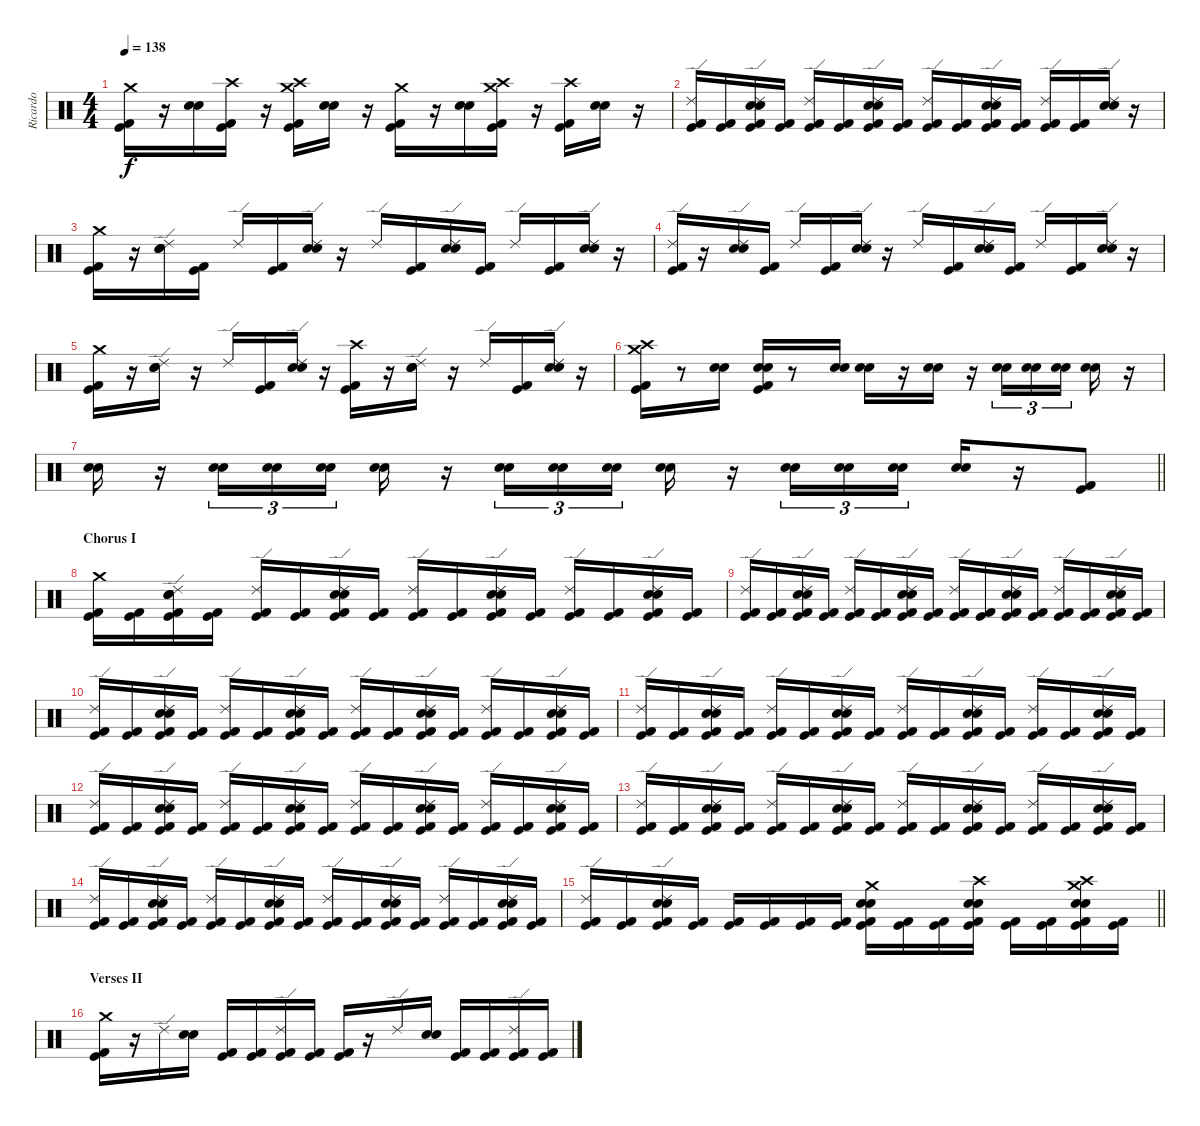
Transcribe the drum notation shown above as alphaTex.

\track ("Ricardo" "Ricardo") {instrument percussion}
\staff {score}
\articulation defaults
\ts (4 4)
\tempo 138
\clef neutral
\ks c
("Crash medium (hit)" "Kick (hit) 2" "Kick (hit)").16{dy f} r.16 ("Electric Snare (hit)" "Snare (hit) 2").16 ("Crash high (hit)" "Kick (hit)" "Kick (hit) 2").16 r.16 ("Crash high (hit)" "Crash medium (hit)" "Kick (hit) 2" "Kick (hit)").16 ("Electric Snare (hit)" "Snare (hit) 2").16 r.16 ("Crash medium (hit)" "Kick (hit) 2" "Kick (hit)").16 r.16 ("Electric Snare (hit)" "Snare (hit) 2").16 ("Crash medium (hit)" "Crash high (hit)" "Kick (hit) 2" "Kick (hit)").16 r.16 ("Crash high (hit)" "Kick (hit) 2" "Kick (hit)").16 ("Electric Snare (hit)" "Snare (hit) 2").16 r.16 |
("Ride (edge) 2" "Kick (hit) 2" "Kick (hit)").16 ("Kick (hit) 2" "Kick (hit)").16 ("Electric Snare (hit)" "Snare (hit) 2" "Ride (edge) 2" "Kick (hit) 2" "Kick (hit)").16 ("Kick (hit) 2" "Kick (hit)").16 ("Ride (edge) 2" "Kick (hit) 2" "Kick (hit)").16 ("Kick (hit) 2" "Kick (hit)").16 ("Electric Snare (hit)" "Snare (hit) 2" "Ride (edge) 2" "Kick (hit) 2" "Kick (hit)").16 ("Kick (hit) 2" "Kick (hit)").16 ("Ride (edge) 2" "Kick (hit) 2" "Kick (hit)").16 ("Kick (hit) 2" "Kick (hit)").16 ("Electric Snare (hit)" "Snare (hit) 2" "Ride (edge) 2" "Kick (hit) 2" "Kick (hit)").16 ("Kick (hit) 2" "Kick (hit)").16 ("Ride (edge) 2" "Kick (hit) 2" "Kick (hit)").16 ("Kick (hit) 2" "Kick (hit)").16 ("Ride (edge) 2" "Electric Snare (hit)" "Snare (hit) 2").16 r.16 |
("Crash medium (hit)" "Kick (hit) 2" "Kick (hit)").16 r.16 ("Electric Snare (hit)" "Snare (hit) 2" "Ride (edge) 2").16 ("Kick (hit) 2" "Kick (hit)").16 "Ride (edge) 2".16 ("Kick (hit) 2" "Kick (hit)").16 ("Electric Snare (hit)" "Snare (hit) 2" "Ride (edge) 2").16 r.16 "Ride (edge) 2".16 ("Kick (hit) 2" "Kick (hit)").16 ("Electric Snare (hit)" "Snare (hit) 2" "Ride (edge) 2").16 ("Kick (hit) 2" "Kick (hit)").16 "Ride (edge) 2".16 ("Kick (hit) 2" "Kick (hit)").16 ("Electric Snare (hit)" "Snare (hit) 2" "Ride (edge) 2").16 r.16 |
("Ride (edge) 2" "Kick (hit) 2" "Kick (hit)").16 r.16 ("Ride (edge) 2" "Electric Snare (hit)" "Snare (hit) 2").16 ("Kick (hit) 2" "Kick (hit)").16 "Ride (edge) 2".16 ("Kick (hit) 2" "Kick (hit)").16 ("Electric Snare (hit)" "Snare (hit) 2" "Ride (edge) 2").16 r.16 "Ride (edge) 2".16 ("Kick (hit) 2" "Kick (hit)").16 ("Electric Snare (hit)" "Snare (hit) 2" "Ride (edge) 2").16 ("Kick (hit) 2" "Kick (hit)").16 "Ride (edge) 2".16 ("Kick (hit) 2" "Kick (hit)").16 ("Electric Snare (hit)" "Snare (hit) 2" "Ride (edge) 2").16 r.16 |
("Kick (hit) 2" "Kick (hit)" "Crash medium (hit)").16 r.16 ("Electric Snare (hit)" "Snare (hit) 2" "Ride (edge) 2").16 r.16 "Ride (edge) 2".16 ("Kick (hit) 2" "Kick (hit)").16 ("Electric Snare (hit)" "Snare (hit) 2" "Ride (edge) 2").16 r.16 ("Crash high (hit)" "Kick (hit) 2" "Kick (hit)").16 r.16 ("Ride (edge) 2" "Electric Snare (hit)" "Snare (hit) 2").16 r.16 "Ride (edge) 2".16 ("Kick (hit)" "Kick (hit) 2").16 ("Ride (edge) 2" "Electric Snare (hit)" "Snare (hit) 2").16 r.16 |
("Crash high (hit)" "Crash medium (hit)" "Kick (hit) 2" "Kick (hit)").16 r.8 ("Electric Snare (hit)" "Snare (hit) 2").16 ("Electric Snare (hit)" "Snare (hit) 2" "Kick (hit) 2" "Kick (hit)").16 r.8 ("Electric Snare (hit)" "Snare (hit) 2").16 ("Electric Snare (hit)" "Snare (hit) 2").16 r.16 ("Electric Snare (hit)" "Snare (hit) 2").16 r.16 ("Electric Snare (hit)" "Snare (hit) 2").16{tu (3 2)} ("Electric Snare (hit)" "Snare (hit) 2").16{tu (3 2)} ("Electric Snare (hit)" "Snare (hit) 2").16{tu (3 2)} ("Electric Snare (hit)" "Snare (hit) 2").16 r.16 |
\barLineRight lightlight
("Electric Snare (hit)" "Snare (hit) 2").16 r.16 ("Electric Snare (hit)" "Snare (hit) 2").16{tu (3 2)} ("Electric Snare (hit)" "Snare (hit) 2").16{tu (3 2)} ("Electric Snare (hit)" "Snare (hit) 2").16{tu (3 2)} ("Electric Snare (hit)" "Snare (hit) 2").16 r.16 ("Electric Snare (hit)" "Snare (hit) 2").16{tu (3 2)} ("Electric Snare (hit)" "Snare (hit) 2").16{tu (3 2)} ("Electric Snare (hit)" "Snare (hit) 2").16{tu (3 2)} ("Electric Snare (hit)" "Snare (hit) 2").16 r.16 ("Electric Snare (hit)" "Snare (hit) 2").16{tu (3 2)} ("Electric Snare (hit)" "Snare (hit) 2").16{tu (3 2)} ("Electric Snare (hit)" "Snare (hit) 2").16{tu (3 2)} ("Electric Snare (hit)" "Snare (hit) 2").16 r.16 ("Kick (hit) 2" "Kick (hit)").8 |
\section ("" "Chorus I")
("Crash medium (hit)" "Kick (hit) 2" "Kick (hit)").16 ("Kick (hit) 2" "Kick (hit)").16 ("Electric Snare (hit)" "Snare (hit) 2" "Ride (edge) 2" "Kick (hit) 2" "Kick (hit)").16 ("Kick (hit) 2" "Kick (hit)").16 ("Ride (edge) 2" "Kick (hit) 2" "Kick (hit)").16 ("Kick (hit) 2" "Kick (hit)").16 ("Electric Snare (hit)" "Snare (hit) 2" "Ride (edge) 2" "Kick (hit) 2" "Kick (hit)").16 ("Kick (hit) 2" "Kick (hit)").16 ("Ride (edge) 2" "Kick (hit) 2" "Kick (hit)").16 ("Kick (hit) 2" "Kick (hit)").16 ("Electric Snare (hit)" "Snare (hit) 2" "Ride (edge) 2" "Kick (hit) 2" "Kick (hit)").16 ("Kick (hit) 2" "Kick (hit)").16 ("Ride (edge) 2" "Kick (hit) 2" "Kick (hit)").16 ("Kick (hit) 2" "Kick (hit)").16 ("Electric Snare (hit)" "Snare (hit) 2" "Ride (edge) 2" "Kick (hit) 2" "Kick (hit)").16 ("Kick (hit) 2" "Kick (hit)").16 |
("Ride (edge) 2" "Kick (hit) 2" "Kick (hit)").16 ("Kick (hit) 2" "Kick (hit)").16 ("Electric Snare (hit)" "Snare (hit) 2" "Ride (edge) 2" "Kick (hit) 2" "Kick (hit)").16 ("Kick (hit) 2" "Kick (hit)").16 ("Ride (edge) 2" "Kick (hit) 2" "Kick (hit)").16 ("Kick (hit) 2" "Kick (hit)").16 ("Electric Snare (hit)" "Snare (hit) 2" "Ride (edge) 2" "Kick (hit) 2" "Kick (hit)").16 ("Kick (hit) 2" "Kick (hit)").16 ("Ride (edge) 2" "Kick (hit) 2" "Kick (hit)").16 ("Kick (hit) 2" "Kick (hit)").16 ("Electric Snare (hit)" "Snare (hit) 2" "Ride (edge) 2" "Kick (hit) 2" "Kick (hit)").16 ("Kick (hit) 2" "Kick (hit)").16 ("Ride (edge) 2" "Kick (hit) 2" "Kick (hit)").16 ("Kick (hit) 2" "Kick (hit)").16 ("Electric Snare (hit)" "Snare (hit) 2" "Ride (edge) 2" "Kick (hit) 2" "Kick (hit)").16 ("Kick (hit) 2" "Kick (hit)").16 |
("Ride (edge) 2" "Kick (hit) 2" "Kick (hit)").16 ("Kick (hit) 2" "Kick (hit)").16 ("Electric Snare (hit)" "Snare (hit) 2" "Ride (edge) 2" "Kick (hit) 2" "Kick (hit)").16 ("Kick (hit) 2" "Kick (hit)").16 ("Ride (edge) 2" "Kick (hit) 2" "Kick (hit)").16 ("Kick (hit) 2" "Kick (hit)").16 ("Electric Snare (hit)" "Snare (hit) 2" "Ride (edge) 2" "Kick (hit) 2" "Kick (hit)").16 ("Kick (hit) 2" "Kick (hit)").16 ("Ride (edge) 2" "Kick (hit) 2" "Kick (hit)").16 ("Kick (hit) 2" "Kick (hit)").16 ("Electric Snare (hit)" "Snare (hit) 2" "Ride (edge) 2" "Kick (hit) 2" "Kick (hit)").16 ("Kick (hit) 2" "Kick (hit)").16 ("Ride (edge) 2" "Kick (hit) 2" "Kick (hit)").16 ("Kick (hit) 2" "Kick (hit)").16 ("Electric Snare (hit)" "Snare (hit) 2" "Ride (edge) 2" "Kick (hit) 2" "Kick (hit)").16 ("Kick (hit) 2" "Kick (hit)").16 |
("Ride (edge) 2" "Kick (hit) 2" "Kick (hit)").16 ("Kick (hit) 2" "Kick (hit)").16 ("Electric Snare (hit)" "Snare (hit) 2" "Ride (edge) 2" "Kick (hit) 2" "Kick (hit)").16 ("Kick (hit) 2" "Kick (hit)").16 ("Ride (edge) 2" "Kick (hit) 2" "Kick (hit)").16 ("Kick (hit) 2" "Kick (hit)").16 ("Electric Snare (hit)" "Snare (hit) 2" "Ride (edge) 2" "Kick (hit) 2" "Kick (hit)").16 ("Kick (hit) 2" "Kick (hit)").16 ("Ride (edge) 2" "Kick (hit) 2" "Kick (hit)").16 ("Kick (hit) 2" "Kick (hit)").16 ("Electric Snare (hit)" "Snare (hit) 2" "Ride (edge) 2" "Kick (hit) 2" "Kick (hit)").16 ("Kick (hit) 2" "Kick (hit)").16 ("Ride (edge) 2" "Kick (hit) 2" "Kick (hit)").16 ("Kick (hit) 2" "Kick (hit)").16 ("Electric Snare (hit)" "Snare (hit) 2" "Ride (edge) 2" "Kick (hit) 2" "Kick (hit)").16 ("Kick (hit) 2" "Kick (hit)").16 |
("Ride (edge) 2" "Kick (hit) 2" "Kick (hit)").16 ("Kick (hit) 2" "Kick (hit)").16 ("Electric Snare (hit)" "Snare (hit) 2" "Ride (edge) 2" "Kick (hit) 2" "Kick (hit)").16 ("Kick (hit) 2" "Kick (hit)").16 ("Ride (edge) 2" "Kick (hit) 2" "Kick (hit)").16 ("Kick (hit) 2" "Kick (hit)").16 ("Electric Snare (hit)" "Snare (hit) 2" "Ride (edge) 2" "Kick (hit) 2" "Kick (hit)").16 ("Kick (hit) 2" "Kick (hit)").16 ("Ride (edge) 2" "Kick (hit) 2" "Kick (hit)").16 ("Kick (hit) 2" "Kick (hit)").16 ("Electric Snare (hit)" "Snare (hit) 2" "Ride (edge) 2" "Kick (hit) 2" "Kick (hit)").16 ("Kick (hit) 2" "Kick (hit)").16 ("Ride (edge) 2" "Kick (hit) 2" "Kick (hit)").16 ("Kick (hit) 2" "Kick (hit)").16 ("Electric Snare (hit)" "Snare (hit) 2" "Ride (edge) 2" "Kick (hit) 2" "Kick (hit)").16 ("Kick (hit) 2" "Kick (hit)").16 |
("Ride (edge) 2" "Kick (hit) 2" "Kick (hit)").16 ("Kick (hit) 2" "Kick (hit)").16 ("Electric Snare (hit)" "Snare (hit) 2" "Ride (edge) 2" "Kick (hit) 2" "Kick (hit)").16 ("Kick (hit) 2" "Kick (hit)").16 ("Ride (edge) 2" "Kick (hit) 2" "Kick (hit)").16 ("Kick (hit) 2" "Kick (hit)").16 ("Electric Snare (hit)" "Snare (hit) 2" "Ride (edge) 2" "Kick (hit) 2" "Kick (hit)").16 ("Kick (hit) 2" "Kick (hit)").16 ("Ride (edge) 2" "Kick (hit) 2" "Kick (hit)").16 ("Kick (hit) 2" "Kick (hit)").16 ("Electric Snare (hit)" "Snare (hit) 2" "Ride (edge) 2" "Kick (hit) 2" "Kick (hit)").16 ("Kick (hit) 2" "Kick (hit)").16 ("Ride (edge) 2" "Kick (hit) 2" "Kick (hit)").16 ("Kick (hit) 2" "Kick (hit)").16 ("Electric Snare (hit)" "Snare (hit) 2" "Ride (edge) 2" "Kick (hit) 2" "Kick (hit)").16 ("Kick (hit) 2" "Kick (hit)").16 |
("Ride (edge) 2" "Kick (hit) 2" "Kick (hit)").16 ("Kick (hit) 2" "Kick (hit)").16 ("Electric Snare (hit)" "Snare (hit) 2" "Ride (edge) 2" "Kick (hit) 2" "Kick (hit)").16 ("Kick (hit) 2" "Kick (hit)").16 ("Ride (edge) 2" "Kick (hit) 2" "Kick (hit)").16 ("Kick (hit) 2" "Kick (hit)").16 ("Electric Snare (hit)" "Snare (hit) 2" "Ride (edge) 2" "Kick (hit) 2" "Kick (hit)").16 ("Kick (hit) 2" "Kick (hit)").16 ("Ride (edge) 2" "Kick (hit) 2" "Kick (hit)").16 ("Kick (hit) 2" "Kick (hit)").16 ("Electric Snare (hit)" "Snare (hit) 2" "Ride (edge) 2" "Kick (hit) 2" "Kick (hit)").16 ("Kick (hit) 2" "Kick (hit)").16 ("Ride (edge) 2" "Kick (hit) 2" "Kick (hit)").16 ("Kick (hit) 2" "Kick (hit)").16 ("Electric Snare (hit)" "Snare (hit) 2" "Ride (edge) 2" "Kick (hit) 2" "Kick (hit)").16 ("Kick (hit) 2" "Kick (hit)").16 |
\barLineRight lightlight
("Ride (edge) 2" "Kick (hit) 2" "Kick (hit)").16 ("Kick (hit) 2" "Kick (hit)").16 ("Electric Snare (hit)" "Snare (hit) 2" "Ride (edge) 2" "Kick (hit) 2" "Kick (hit)").16 ("Kick (hit) 2" "Kick (hit)").16 ("Kick (hit) 2" "Kick (hit)").16 ("Kick (hit) 2" "Kick (hit)").16 ("Kick (hit) 2" "Kick (hit)").16 ("Kick (hit) 2" "Kick (hit)").16 ("Electric Snare (hit)" "Snare (hit) 2" "Crash medium (hit)" "Kick (hit) 2" "Kick (hit)").16 ("Kick (hit) 2" "Kick (hit)").16 ("Kick (hit) 2" "Kick (hit)").16 ("Electric Snare (hit)" "Snare (hit) 2" "Crash high (hit)" "Kick (hit) 2" "Kick (hit)").16 ("Kick (hit) 2" "Kick (hit)").16 ("Kick (hit) 2" "Kick (hit)").16 ("Electric Snare (hit)" "Snare (hit) 2" "Crash high (hit)" "Crash medium (hit)" "Kick (hit) 2" "Kick (hit)").16 ("Kick (hit) 2" "Kick (hit)").16 |
\section ("" "Verses II")
("Crash medium (hit)" "Kick (hit) 2" "Kick (hit)").16 r.16 "Ride (edge) 2".16 ("Electric Snare (hit)" "Snare (hit) 2").16 ("Kick (hit) 2" "Kick (hit)").16 ("Kick (hit) 2" "Kick (hit)").16 ("Ride (edge) 2" "Kick (hit) 2" "Kick (hit)").16 ("Kick (hit) 2" "Kick (hit)").16 ("Kick (hit) 2" "Kick (hit)").16 r.16 "Ride (edge) 2".16 ("Electric Snare (hit)" "Snare (hit) 2").16 ("Kick (hit) 2" "Kick (hit)").16 ("Kick (hit) 2" "Kick (hit)").16 ("Ride (edge) 2" "Kick (hit) 2" "Kick (hit)").16 ("Kick (hit) 2" "Kick (hit)").16
